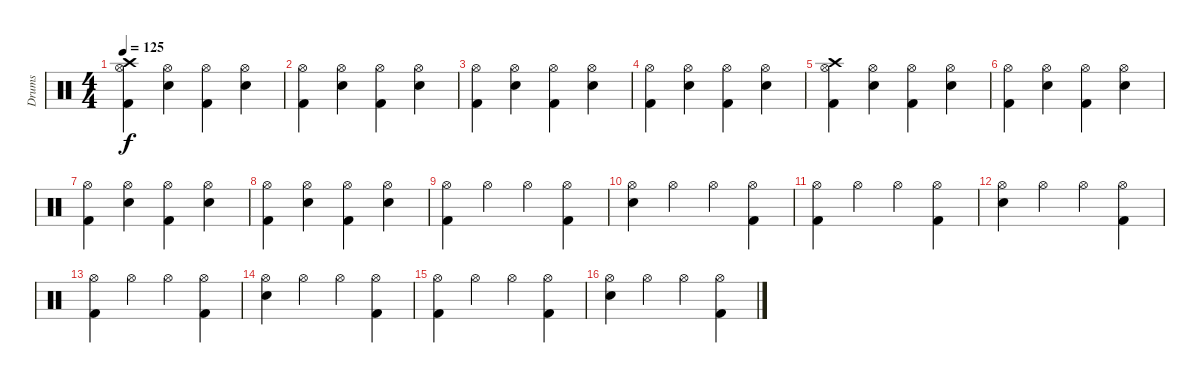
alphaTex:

\track ("Drums" "Drums") {instrument percussion}
\staff {score}
\articulation defaults
\ts (4 4)
\tempo 125
\clef neutral
\ks c
("Hi-Hat (open)" "Crash high (hit)" "Kick (hit) 2").4{dy f} ("Hi-Hat (open)" "Snare (hit) 2").4 ("Hi-Hat (open)" "Kick (hit) 2").4 ("Hi-Hat (open)" "Snare (hit) 2").4 |
("Hi-Hat (open)" "Kick (hit) 2").4 ("Hi-Hat (open)" "Snare (hit) 2").4 ("Hi-Hat (open)" "Kick (hit) 2").4 ("Hi-Hat (open)" "Snare (hit) 2").4 |
("Hi-Hat (open)" "Kick (hit) 2").4 ("Hi-Hat (open)" "Snare (hit) 2").4 ("Hi-Hat (open)" "Kick (hit) 2").4 ("Hi-Hat (open)" "Snare (hit) 2").4 |
("Hi-Hat (open)" "Kick (hit) 2").4 ("Hi-Hat (open)" "Snare (hit) 2").4 ("Hi-Hat (open)" "Kick (hit) 2").4 ("Hi-Hat (open)" "Snare (hit) 2").4 |
("Hi-Hat (open)" "Crash high (hit)" "Kick (hit) 2").4 ("Hi-Hat (open)" "Snare (hit) 2").4 ("Hi-Hat (open)" "Kick (hit) 2").4 ("Hi-Hat (open)" "Snare (hit) 2").4 |
("Hi-Hat (open)" "Kick (hit) 2").4 ("Hi-Hat (open)" "Snare (hit) 2").4 ("Hi-Hat (open)" "Kick (hit) 2").4 ("Hi-Hat (open)" "Snare (hit) 2").4 |
("Hi-Hat (open)" "Kick (hit) 2").4 ("Hi-Hat (open)" "Snare (hit) 2").4 ("Hi-Hat (open)" "Kick (hit) 2").4 ("Hi-Hat (open)" "Snare (hit) 2").4 |
("Hi-Hat (open)" "Kick (hit) 2").4 ("Hi-Hat (open)" "Snare (hit) 2").4 ("Hi-Hat (open)" "Kick (hit) 2").4 ("Hi-Hat (open)" "Snare (hit) 2").4 |
("Hi-Hat (open)" "Kick (hit) 2").4 "Hi-Hat (open)".4 "Hi-Hat (open)".4 ("Hi-Hat (open)" "Kick (hit) 2").4 |
("Hi-Hat (open)" "Snare (hit) 2").4 "Hi-Hat (open)".4 "Hi-Hat (open)".4 ("Hi-Hat (open)" "Kick (hit) 2").4 |
("Hi-Hat (open)" "Kick (hit) 2").4 "Hi-Hat (open)".4 "Hi-Hat (open)".4 ("Hi-Hat (open)" "Kick (hit) 2").4 |
("Hi-Hat (open)" "Snare (hit) 2").4 "Hi-Hat (open)".4 "Hi-Hat (open)".4 ("Hi-Hat (open)" "Kick (hit) 2").4 |
("Hi-Hat (open)" "Kick (hit) 2").4 "Hi-Hat (open)".4 "Hi-Hat (open)".4 ("Hi-Hat (open)" "Kick (hit) 2").4 |
("Hi-Hat (open)" "Snare (hit) 2").4 "Hi-Hat (open)".4 "Hi-Hat (open)".4 ("Hi-Hat (open)" "Kick (hit) 2").4 |
("Hi-Hat (open)" "Kick (hit) 2").4 "Hi-Hat (open)".4 "Hi-Hat (open)".4 ("Hi-Hat (open)" "Kick (hit) 2").4 |
("Hi-Hat (open)" "Snare (hit) 2").4 "Hi-Hat (open)".4 "Hi-Hat (open)".4 ("Hi-Hat (open)" "Kick (hit) 2").4
